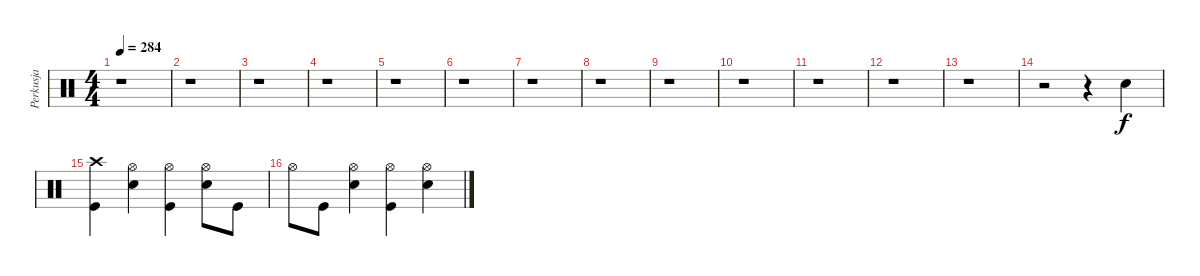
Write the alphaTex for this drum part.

\track ("Perkusja" "Perkusja") {instrument percussion}
\staff {score}
\articulation defaults
\ts (4 4)
\tempo 284
\clef neutral
\ks c
r.1{dy f} |
r.1 |
r.1 |
r.1 |
r.1 |
r.1 |
r.1 |
r.1 |
r.1 |
r.1 |
r.1 |
r.1 |
r.1 |
r.2 r.4 "Snare (hit) 2".4 |
("Kick (hit)" "Crash high (hit)").4 ("Hi-Hat (open)" "Snare (hit) 2").4 ("Hi-Hat (open)" "Kick (hit)").4 ("Hi-Hat (open)" "Snare (hit) 2").8 "Kick (hit)".8 |
"Hi-Hat (open)".8 "Kick (hit)".8 ("Hi-Hat (open)" "Snare (hit) 2").4 ("Hi-Hat (open)" "Kick (hit)").4 ("Hi-Hat (open)" "Snare (hit) 2").4
